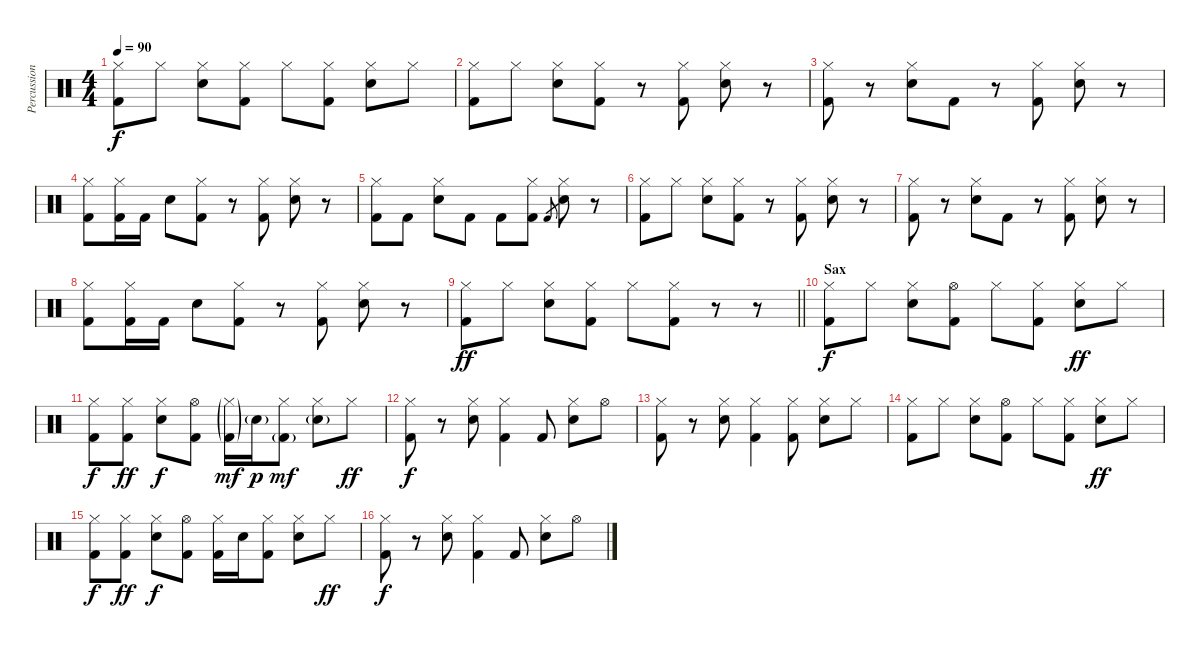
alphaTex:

\track ("Percussion" "Percussion") {instrument percussion}
\staff {score}
\articulation defaults
\ts (4 4)
\tempo 90
\clef neutral
\ks c
("Hi-Hat (closed)" "Kick (hit) 2").8{dy f} "Hi-Hat (closed)".8 ("Hi-Hat (closed)" "Snare (hit) 2").8 ("Hi-Hat (closed)" "Kick (hit) 2").8 "Hi-Hat (closed)".8 ("Hi-Hat (closed)" "Kick (hit) 2").8 ("Hi-Hat (closed)" "Snare (hit) 2").8 "Hi-Hat (closed)".8 |
("Hi-Hat (closed)" "Kick (hit) 2").8 "Hi-Hat (closed)".8 ("Hi-Hat (closed)" "Snare (hit) 2").8 ("Hi-Hat (closed)" "Kick (hit) 2").8 r.8 ("Hi-Hat (closed)" "Kick (hit) 2").8 ("Hi-Hat (closed)" "Snare (hit) 2").8 r.8 |
("Hi-Hat (closed)" "Kick (hit) 2").8 r.8 ("Hi-Hat (closed)" "Snare (hit) 2").8 "Kick (hit) 2".8 r.8 ("Hi-Hat (closed)" "Kick (hit) 2").8 ("Hi-Hat (closed)" "Snare (hit) 2").8 r.8 |
("Hi-Hat (closed)" "Kick (hit) 2").8 ("Hi-Hat (closed)" "Kick (hit) 2").16 "Kick (hit) 2".16 "Snare (hit) 2".8 ("Hi-Hat (closed)" "Kick (hit) 2").8 r.8 ("Hi-Hat (closed)" "Kick (hit) 2").8 ("Hi-Hat (closed)" "Snare (hit) 2").8 r.8 |
("Hi-Hat (closed)" "Kick (hit) 2").8 "Kick (hit) 2".8 ("Hi-Hat (closed)" "Snare (hit) 2").8 "Kick (hit) 2".8 "Kick (hit) 2".8 ("Hi-Hat (closed)" "Kick (hit) 2").8 "Kick (hit) 2".8{gr} ("Hi-Hat (closed)" "Snare (hit) 2").8 r.8 |
("Hi-Hat (closed)" "Kick (hit) 2").8 "Hi-Hat (closed)".8 ("Hi-Hat (closed)" "Snare (hit) 2").8 ("Hi-Hat (closed)" "Kick (hit) 2").8 r.8 ("Hi-Hat (closed)" "Kick (hit) 2").8 ("Hi-Hat (closed)" "Snare (hit) 2").8 r.8 |
("Hi-Hat (closed)" "Kick (hit) 2").8 r.8 ("Hi-Hat (closed)" "Snare (hit) 2").8 "Kick (hit) 2".8 r.8 ("Hi-Hat (closed)" "Kick (hit) 2").8 ("Hi-Hat (closed)" "Snare (hit) 2").8 r.8 |
("Hi-Hat (closed)" "Kick (hit) 2").8 ("Hi-Hat (closed)" "Kick (hit) 2").16 "Kick (hit) 2".16 "Snare (hit) 2".8 ("Hi-Hat (closed)" "Kick (hit) 2").8 r.8 ("Hi-Hat (closed)" "Kick (hit) 2").8 ("Hi-Hat (closed)" "Snare (hit) 2").8 r.8 |
\barLineRight lightlight
("Hi-Hat (closed)" "Kick (hit) 2").8{dy ff} "Hi-Hat (closed)".8 ("Hi-Hat (closed)" "Snare (hit) 2").8 ("Hi-Hat (closed)" "Kick (hit) 2").8 "Hi-Hat (closed)".8 ("Hi-Hat (closed)" "Kick (hit) 2").8 r.8 r.8 |
\section ("" "Sax")
("Hi-Hat (closed)" "Kick (hit) 2").8{dy f} "Hi-Hat (closed)".8 ("Hi-Hat (closed)" "Snare (hit) 2").8 ("Hi-Hat (open)" "Kick (hit) 2").8 "Hi-Hat (closed)".8 ("Hi-Hat (closed)" "Kick (hit) 2").8 ("Hi-Hat (closed)" "Snare (hit) 2").8{dy ff} "Hi-Hat (closed)".8 |
("Hi-Hat (closed)" "Kick (hit) 2").8{dy f} ("Hi-Hat (closed)" "Kick (hit) 2").8{dy ff} ("Hi-Hat (closed)" "Snare (hit) 2").8{dy f} ("Hi-Hat (open)" "Kick (hit) 2").8 ("Hi-Hat (closed)"{g} "Kick (hit) 2"{g}).16{dy mf} "Snare (hit) 2"{g}.16{dy p} ("Hi-Hat (closed)" "Kick (hit) 2"{g}).8{dy mf} ("Hi-Hat (closed)" "Snare (hit) 2"{g}).8 "Hi-Hat (closed)".8{dy ff} |
("Hi-Hat (closed)" "Kick (hit) 2").8{dy f} r.8 ("Hi-Hat (closed)" "Snare (hit) 2").8 ("Hi-Hat (closed)" "Kick (hit) 2").4 "Kick (hit) 2".8 ("Hi-Hat (closed)" "Snare (hit) 2").8 "Hi-Hat (open)".8 |
("Hi-Hat (closed)" "Kick (hit) 2").8 r.8 ("Hi-Hat (closed)" "Snare (hit) 2").8 ("Hi-Hat (closed)" "Kick (hit) 2").4 ("Hi-Hat (closed)" "Kick (hit) 2").8 ("Hi-Hat (closed)" "Snare (hit) 2").8 "Hi-Hat (closed)".8 |
("Hi-Hat (closed)" "Kick (hit) 2").8 "Hi-Hat (closed)".8 ("Hi-Hat (closed)" "Snare (hit) 2").8 ("Hi-Hat (open)" "Kick (hit) 2").8 "Hi-Hat (closed)".8 ("Hi-Hat (closed)" "Kick (hit) 2").8 ("Hi-Hat (closed)" "Snare (hit) 2").8{dy ff} "Hi-Hat (closed)".8 |
("Hi-Hat (closed)" "Kick (hit) 2").8{dy f} ("Hi-Hat (closed)" "Kick (hit) 2").8{dy ff} ("Hi-Hat (closed)" "Snare (hit) 2").8{dy f} ("Hi-Hat (open)" "Kick (hit) 2").8 ("Hi-Hat (closed)" "Kick (hit) 2").16 "Snare (hit) 2".16 ("Hi-Hat (closed)" "Kick (hit) 2").8 ("Hi-Hat (closed)" "Snare (hit) 2").8 "Hi-Hat (closed)".8{dy ff} |
("Hi-Hat (closed)" "Kick (hit) 2").8{dy f} r.8 ("Hi-Hat (closed)" "Snare (hit) 2").8 ("Hi-Hat (closed)" "Kick (hit) 2").4 "Kick (hit) 2".8 ("Hi-Hat (closed)" "Snare (hit) 2").8 "Hi-Hat (open)".8
